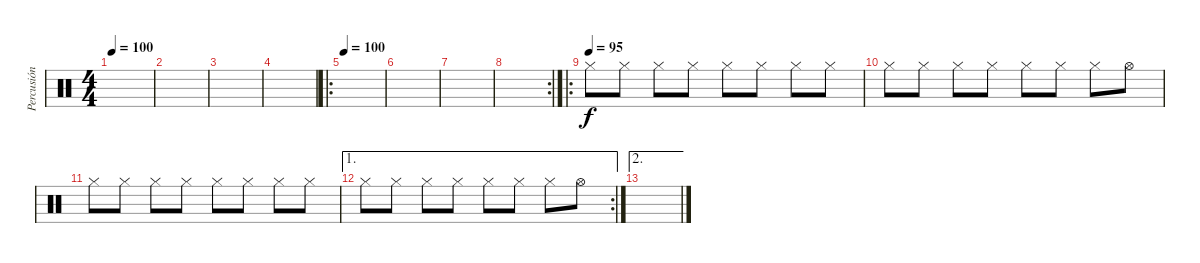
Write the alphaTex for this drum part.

\track ("Percusión" "Percusión") {instrument percussion}
\staff {score}
\articulation defaults
\ts (4 4)
\tempo 100
\clef neutral
\ks c
|
|
|
|
\ro
\tempo 100
|
|
|
\rc 2
|
\ro
\tempo (95)
"Hi-Hat (closed)".8 "Hi-Hat (closed)".8 "Hi-Hat (closed)".8 "Hi-Hat (closed)".8 "Hi-Hat (closed)".8 "Hi-Hat (closed)".8 "Hi-Hat (closed)".8 "Hi-Hat (closed)".8 |
"Hi-Hat (closed)".8 "Hi-Hat (closed)".8 "Hi-Hat (closed)".8 "Hi-Hat (closed)".8 "Hi-Hat (closed)".8 "Hi-Hat (closed)".8 "Hi-Hat (closed)".8 "Hi-Hat (open)".8 |
"Hi-Hat (closed)".8 "Hi-Hat (closed)".8 "Hi-Hat (closed)".8 "Hi-Hat (closed)".8 "Hi-Hat (closed)".8 "Hi-Hat (closed)".8 "Hi-Hat (closed)".8 "Hi-Hat (closed)".8 |
\ae 1
\rc 2 "Hi-Hat (closed)".8 "Hi-Hat (closed)".8 "Hi-Hat (closed)".8 "Hi-Hat (closed)".8 "Hi-Hat (closed)".8 "Hi-Hat (closed)".8 "Hi-Hat (closed)".8 "Hi-Hat (open)".8
|
\ae 2
